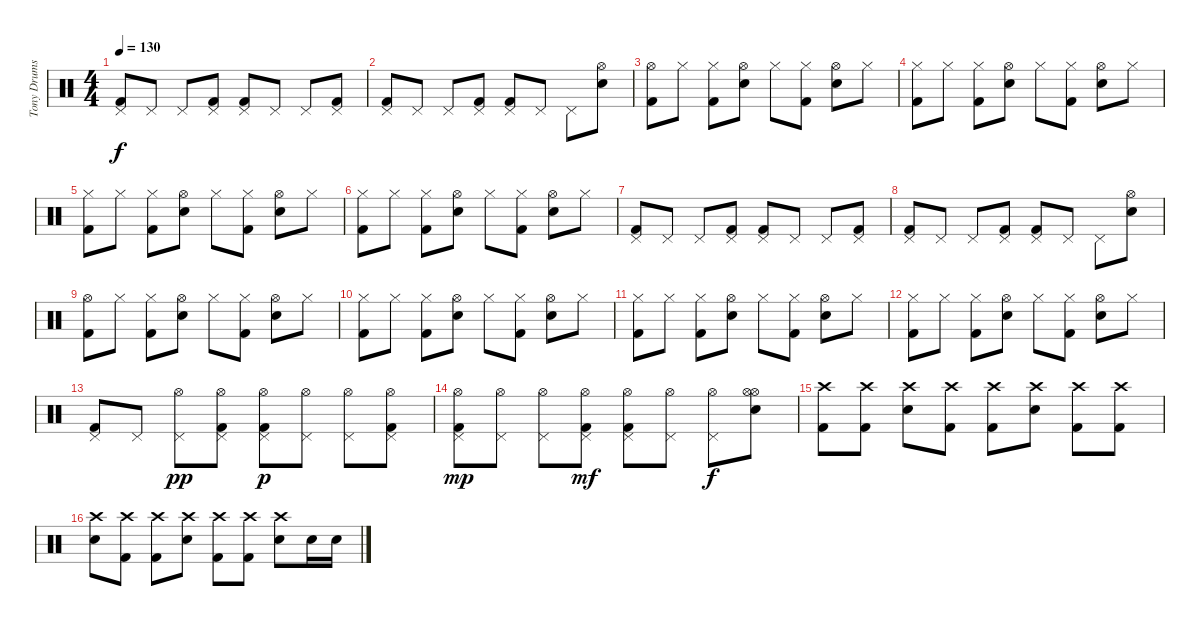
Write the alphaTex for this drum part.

\track ("Tony Drums" "Tony Drums") {instrument percussion}
\staff {score}
\articulation defaults
\ts (4 4)
\tempo 130
\clef neutral
\ks c
("Pedal Hi-Hat (hit)" "Kick (hit) 2").8{dy f} "Pedal Hi-Hat (hit)".8 "Pedal Hi-Hat (hit)".8 ("Pedal Hi-Hat (hit)" "Kick (hit) 2").8 ("Pedal Hi-Hat (hit)" "Kick (hit) 2").8 "Pedal Hi-Hat (hit)".8 "Pedal Hi-Hat (hit)".8 ("Pedal Hi-Hat (hit)" "Kick (hit) 2").8 |
("Pedal Hi-Hat (hit)" "Kick (hit) 2").8 "Pedal Hi-Hat (hit)".8 "Pedal Hi-Hat (hit)".8 ("Pedal Hi-Hat (hit)" "Kick (hit) 2").8 ("Pedal Hi-Hat (hit)" "Kick (hit) 2").8 "Pedal Hi-Hat (hit)".8 "Pedal Hi-Hat (hit)".8 ("Hi-Hat (open)" "Snare (hit) 2").8 |
("Hi-Hat (open)" "Kick (hit) 2").8 "Hi-Hat (closed)".8 ("Hi-Hat (closed)" "Kick (hit) 2").8 ("Hi-Hat (open)" "Snare (hit) 2").8 "Hi-Hat (closed)".8 ("Hi-Hat (closed)" "Kick (hit) 2").8 ("Hi-Hat (open)" "Snare (hit) 2").8 "Hi-Hat (closed)".8 |
("Hi-Hat (closed)" "Kick (hit) 2").8 "Hi-Hat (closed)".8 ("Hi-Hat (closed)" "Kick (hit) 2").8 ("Hi-Hat (open)" "Snare (hit) 2").8 "Hi-Hat (closed)".8 ("Hi-Hat (closed)" "Kick (hit) 2").8 ("Hi-Hat (open)" "Snare (hit) 2").8 "Hi-Hat (closed)".8 |
("Hi-Hat (closed)" "Kick (hit) 2").8 "Hi-Hat (closed)".8 ("Hi-Hat (closed)" "Kick (hit) 2").8 ("Hi-Hat (open)" "Snare (hit) 2").8 "Hi-Hat (closed)".8 ("Hi-Hat (closed)" "Kick (hit) 2").8 ("Hi-Hat (open)" "Snare (hit) 2").8 "Hi-Hat (closed)".8 |
("Hi-Hat (closed)" "Kick (hit) 2").8 "Hi-Hat (closed)".8 ("Hi-Hat (closed)" "Kick (hit) 2").8 ("Hi-Hat (open)" "Snare (hit) 2").8 "Hi-Hat (closed)".8 ("Hi-Hat (closed)" "Kick (hit) 2").8 ("Hi-Hat (open)" "Snare (hit) 2").8 "Hi-Hat (closed)".8 |
("Pedal Hi-Hat (hit)" "Kick (hit) 2").8 "Pedal Hi-Hat (hit)".8 "Pedal Hi-Hat (hit)".8 ("Pedal Hi-Hat (hit)" "Kick (hit) 2").8 ("Pedal Hi-Hat (hit)" "Kick (hit) 2").8 "Pedal Hi-Hat (hit)".8 "Pedal Hi-Hat (hit)".8 ("Pedal Hi-Hat (hit)" "Kick (hit) 2").8 |
("Pedal Hi-Hat (hit)" "Kick (hit) 2").8 "Pedal Hi-Hat (hit)".8 "Pedal Hi-Hat (hit)".8 ("Pedal Hi-Hat (hit)" "Kick (hit) 2").8 ("Pedal Hi-Hat (hit)" "Kick (hit) 2").8 "Pedal Hi-Hat (hit)".8 "Pedal Hi-Hat (hit)".8 ("Hi-Hat (open)" "Snare (hit) 2").8 |
("Hi-Hat (open)" "Kick (hit) 2").8 "Hi-Hat (closed)".8 ("Hi-Hat (closed)" "Kick (hit) 2").8 ("Hi-Hat (open)" "Snare (hit) 2").8 "Hi-Hat (closed)".8 ("Hi-Hat (closed)" "Kick (hit) 2").8 ("Hi-Hat (open)" "Snare (hit) 2").8 "Hi-Hat (closed)".8 |
("Hi-Hat (closed)" "Kick (hit) 2").8 "Hi-Hat (closed)".8 ("Hi-Hat (closed)" "Kick (hit) 2").8 ("Hi-Hat (open)" "Snare (hit) 2").8 "Hi-Hat (closed)".8 ("Hi-Hat (closed)" "Kick (hit) 2").8 ("Hi-Hat (open)" "Snare (hit) 2").8 "Hi-Hat (closed)".8 |
("Hi-Hat (closed)" "Kick (hit) 2").8 "Hi-Hat (closed)".8 ("Hi-Hat (closed)" "Kick (hit) 2").8 ("Hi-Hat (open)" "Snare (hit) 2").8 "Hi-Hat (closed)".8 ("Hi-Hat (closed)" "Kick (hit) 2").8 ("Hi-Hat (open)" "Snare (hit) 2").8 "Hi-Hat (closed)".8 |
("Hi-Hat (closed)" "Kick (hit) 2").8 "Hi-Hat (closed)".8 ("Hi-Hat (closed)" "Kick (hit) 2").8 ("Hi-Hat (open)" "Snare (hit) 2").8 "Hi-Hat (closed)".8 ("Hi-Hat (closed)" "Kick (hit) 2").8 ("Hi-Hat (open)" "Snare (hit) 2").8 "Hi-Hat (closed)".8 |
("Pedal Hi-Hat (hit)" "Kick (hit) 2").8 "Pedal Hi-Hat (hit)".8 ("Hi-Hat (open)" "Pedal Hi-Hat (hit)").8{dy pp} ("Hi-Hat (open)" "Pedal Hi-Hat (hit)" "Kick (hit) 2").8 ("Hi-Hat (open)" "Pedal Hi-Hat (hit)" "Kick (hit) 2").8{dy p} ("Hi-Hat (open)" "Pedal Hi-Hat (hit)").8 ("Hi-Hat (open)" "Pedal Hi-Hat (hit)").8 ("Hi-Hat (open)" "Pedal Hi-Hat (hit)" "Kick (hit) 2").8 |
("Hi-Hat (open)" "Pedal Hi-Hat (hit)" "Kick (hit) 2").8{dy mp} ("Hi-Hat (open)" "Pedal Hi-Hat (hit)").8 ("Hi-Hat (open)" "Pedal Hi-Hat (hit)").8 ("Hi-Hat (open)" "Pedal Hi-Hat (hit)" "Kick (hit) 2").8{dy mf} ("Hi-Hat (open)" "Pedal Hi-Hat (hit)" "Kick (hit) 2").8 ("Hi-Hat (open)" "Pedal Hi-Hat (hit)").8 ("Hi-Hat (open)" "Pedal Hi-Hat (hit)").8{dy f} ("Hi-Hat (open)" "Hi-Hat (open)" "Snare (hit) 2").8 |
("Crash high (hit)" "Kick (hit) 2").8 ("Crash high (hit)" "Kick (hit) 2").8 ("Crash high (hit)" "Snare (hit) 2").8 ("Crash high (hit)" "Kick (hit) 2").8 ("Crash high (hit)" "Kick (hit) 2").8 ("Crash high (hit)" "Snare (hit) 2").8 ("Crash high (hit)" "Kick (hit) 2").8 ("Crash high (hit)" "Kick (hit) 2").8 |
("Crash high (hit)" "Snare (hit) 2").8 ("Crash high (hit)" "Kick (hit) 2").8 ("Crash high (hit)" "Kick (hit) 2").8 ("Crash high (hit)" "Snare (hit) 2").8 ("Crash high (hit)" "Kick (hit) 2").8 ("Crash high (hit)" "Kick (hit) 2").8 ("Crash high (hit)" "Snare (hit) 2").8 "Snare (hit) 2".16 "Snare (hit) 2".16
